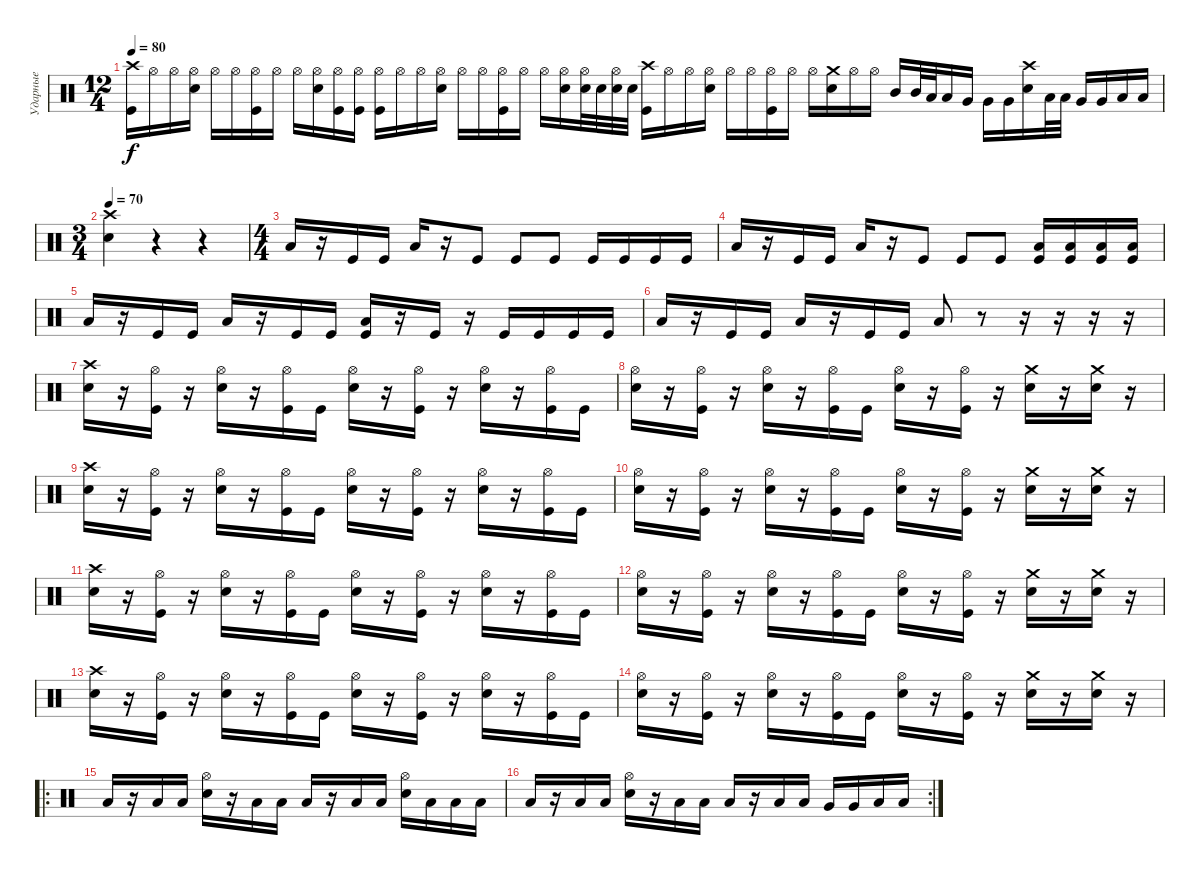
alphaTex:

\track ("Ударные" "Ударные") {instrument percussion}
\staff {score}
\articulation defaults
\ts (12 4)
\tempo 80
\clef neutral
\ks c
("Crash high (hit)" "Kick (hit)").16{dy f} "Hi-Hat (open)".16 "Hi-Hat (open)".16 ("Hi-Hat (open)" "Electric Snare (hit)").16 "Hi-Hat (open)".16 "Hi-Hat (open)".16 ("Hi-Hat (open)" "Kick (hit)").16 "Hi-Hat (open)".16 "Hi-Hat (open)".16 ("Hi-Hat (open)" "Electric Snare (hit)").16 ("Hi-Hat (open)" "Kick (hit)").16 ("Hi-Hat (open)" "Kick (hit)").16 ("Hi-Hat (open)" "Kick (hit)").16 "Hi-Hat (open)".16 "Hi-Hat (open)".16 ("Hi-Hat (open)" "Electric Snare (hit)").16 "Hi-Hat (open)".16 "Hi-Hat (open)".16 ("Hi-Hat (open)" "Kick (hit)").16 "Hi-Hat (open)".16 "Hi-Hat (open)".16 ("Hi-Hat (open)" "Electric Snare (hit)").16 ("Hi-Hat (open)" "Electric Snare (hit)").32 "Electric Snare (hit)".32 ("Hi-Hat (open)" "Electric Snare (hit)").32 "Electric Snare (hit)".32 ("Crash high (hit)" "Kick (hit)").16 "Hi-Hat (open)".16 "Hi-Hat (open)".16 ("Hi-Hat (open)" "Electric Snare (hit)").16 "Hi-Hat (open)".16 "Hi-Hat (open)".16 ("Hi-Hat (open)" "Kick (hit)").16 "Hi-Hat (open)".16 "Hi-Hat (open)".16 ("Crash medium (hit)" "Electric Snare (hit)").16 "Hi-Hat (open)".16 "Hi-Hat (open)".16 "Mid Tom (hit)".16 "Mid Tom (hit)".32 "Low Tom (hit)".32 "Low Tom (hit)".16 "Very Low Tom (hit)".16 "Very Low Tom (hit)".16 "Very Low Tom (hit)".16 ("Crash high (hit)" "Electric Snare (hit)").16 "Low Tom (hit)".32 "Low Tom (hit)".32 "Very Low Tom (hit)".16 "Very Low Tom (hit)".16 "Low Floor Tom (hit)".16 "Low Floor Tom (hit)".16 |
\ts (3 4)
\tempo 70
("Crash high (hit)" "Electric Snare (hit)").4 r.4 r.4 |
\ts (4 4)
"Low Floor Tom (hit)".16 r.16 "Kick (hit)".16 "Kick (hit)".16 "Low Floor Tom (hit)".16 r.16 "Kick (hit)".8 "Kick (hit)".8 "Kick (hit)".8 "Kick (hit)".16 "Kick (hit)".16 "Kick (hit)".16 "Kick (hit)".16 |
"Low Floor Tom (hit)".16 r.16 "Kick (hit)".16 "Kick (hit)".16 "Low Floor Tom (hit)".16 r.16 "Kick (hit)".8 "Kick (hit)".8 "Kick (hit)".8 ("Low Floor Tom (hit)" "Kick (hit)").16 ("Low Floor Tom (hit)" "Kick (hit)").16 ("Low Floor Tom (hit)" "Kick (hit)").16 ("Low Floor Tom (hit)" "Kick (hit)").16 |
"Low Floor Tom (hit)".16 r.16 "Kick (hit)".16 "Kick (hit)".16 "Low Floor Tom (hit)".16 r.16 "Kick (hit)".16 "Kick (hit)".16 ("Low Floor Tom (hit)" "Kick (hit)").16 r.16 "Kick (hit)".16 r.16 "Kick (hit)".16 "Kick (hit)".16 "Kick (hit)".16 "Kick (hit)".16 |
"Low Floor Tom (hit)".16 r.16 "Kick (hit)".16 "Kick (hit)".16 "Low Floor Tom (hit)".16 r.16 "Kick (hit)".16 "Kick (hit)".16 "Low Floor Tom (hit)".8 r.8 r.16 r.16 r.16 r.16 |
("Crash high (hit)" "Electric Snare (hit)").16 r.16 ("Hi-Hat (open)" "Kick (hit)").16 r.16 ("Hi-Hat (open)" "Electric Snare (hit)").16 r.16 ("Hi-Hat (open)" "Kick (hit)").16 "Kick (hit)".16 ("Hi-Hat (open)" "Electric Snare (hit)").16 r.16 ("Hi-Hat (open)" "Kick (hit)").16 r.16 ("Hi-Hat (open)" "Electric Snare (hit)").16 r.16 ("Hi-Hat (open)" "Kick (hit)").16 "Kick (hit)".16 |
("Hi-Hat (open)" "Electric Snare (hit)").16 r.16 ("Hi-Hat (open)" "Kick (hit)").16 r.16 ("Hi-Hat (open)" "Electric Snare (hit)").16 r.16 ("Hi-Hat (open)" "Kick (hit)").16 "Kick (hit)".16 ("Hi-Hat (open)" "Electric Snare (hit)").16 r.16 ("Hi-Hat (open)" "Kick (hit)").16 r.16 ("Crash medium (hit)" "Electric Snare (hit)").16 r.16 ("Crash medium (hit)" "Electric Snare (hit)").16 r.16 |
("Crash high (hit)" "Electric Snare (hit)").16 r.16 ("Hi-Hat (open)" "Kick (hit)").16 r.16 ("Hi-Hat (open)" "Electric Snare (hit)").16 r.16 ("Hi-Hat (open)" "Kick (hit)").16 "Kick (hit)".16 ("Hi-Hat (open)" "Electric Snare (hit)").16 r.16 ("Hi-Hat (open)" "Kick (hit)").16 r.16 ("Hi-Hat (open)" "Electric Snare (hit)").16 r.16 ("Hi-Hat (open)" "Kick (hit)").16 "Kick (hit)".16 |
("Hi-Hat (open)" "Electric Snare (hit)").16 r.16 ("Hi-Hat (open)" "Kick (hit)").16 r.16 ("Hi-Hat (open)" "Electric Snare (hit)").16 r.16 ("Hi-Hat (open)" "Kick (hit)").16 "Kick (hit)".16 ("Hi-Hat (open)" "Electric Snare (hit)").16 r.16 ("Hi-Hat (open)" "Kick (hit)").16 r.16 ("Crash medium (hit)" "Electric Snare (hit)").16 r.16 ("Crash medium (hit)" "Electric Snare (hit)").16 r.16 |
("Crash high (hit)" "Electric Snare (hit)").16 r.16 ("Hi-Hat (open)" "Kick (hit)").16 r.16 ("Hi-Hat (open)" "Electric Snare (hit)").16 r.16 ("Hi-Hat (open)" "Kick (hit)").16 "Kick (hit)".16 ("Hi-Hat (open)" "Electric Snare (hit)").16 r.16 ("Hi-Hat (open)" "Kick (hit)").16 r.16 ("Hi-Hat (open)" "Electric Snare (hit)").16 r.16 ("Hi-Hat (open)" "Kick (hit)").16 "Kick (hit)".16 |
("Hi-Hat (open)" "Electric Snare (hit)").16 r.16 ("Hi-Hat (open)" "Kick (hit)").16 r.16 ("Hi-Hat (open)" "Electric Snare (hit)").16 r.16 ("Hi-Hat (open)" "Kick (hit)").16 "Kick (hit)".16 ("Hi-Hat (open)" "Electric Snare (hit)").16 r.16 ("Hi-Hat (open)" "Kick (hit)").16 r.16 ("Crash medium (hit)" "Electric Snare (hit)").16 r.16 ("Crash medium (hit)" "Electric Snare (hit)").16 r.16 |
("Crash high (hit)" "Electric Snare (hit)").16 r.16 ("Hi-Hat (open)" "Kick (hit)").16 r.16 ("Hi-Hat (open)" "Electric Snare (hit)").16 r.16 ("Hi-Hat (open)" "Kick (hit)").16 "Kick (hit)".16 ("Hi-Hat (open)" "Electric Snare (hit)").16 r.16 ("Hi-Hat (open)" "Kick (hit)").16 r.16 ("Hi-Hat (open)" "Electric Snare (hit)").16 r.16 ("Hi-Hat (open)" "Kick (hit)").16 "Kick (hit)".16 |
("Hi-Hat (open)" "Electric Snare (hit)").16 r.16 ("Hi-Hat (open)" "Kick (hit)").16 r.16 ("Hi-Hat (open)" "Electric Snare (hit)").16 r.16 ("Hi-Hat (open)" "Kick (hit)").16 "Kick (hit)".16 ("Hi-Hat (open)" "Electric Snare (hit)").16 r.16 ("Hi-Hat (open)" "Kick (hit)").16 r.16 ("Crash medium (hit)" "Electric Snare (hit)").16 r.16 ("Crash medium (hit)" "Electric Snare (hit)").16 r.16 |
\ro "Low Floor Tom (hit)".16
r.16 "Low Floor Tom (hit)".16 "Low Floor Tom (hit)".16 ("Hi-Hat (open)" "Electric Snare (hit)").16 r.16 "Low Floor Tom (hit)".16 "Low Floor Tom (hit)".16 "Low Floor Tom (hit)".16 r.16 "Low Floor Tom (hit)".16 "Low Floor Tom (hit)".16 ("Hi-Hat (open)" "Electric Snare (hit)").16 "Low Floor Tom (hit)".16 "Low Floor Tom (hit)".16 "Low Floor Tom (hit)".16 |
\rc 2 "Low Floor Tom (hit)".16
r.16 "Low Floor Tom (hit)".16 "Low Floor Tom (hit)".16 ("Hi-Hat (open)" "Electric Snare (hit)").16 r.16 "Low Floor Tom (hit)".16 "Low Floor Tom (hit)".16 "Low Floor Tom (hit)".16 r.16 "Low Tom (hit)".16 "Low Tom (hit)".16 "Very Low Tom (hit)".16 "Very Low Tom (hit)".16 "Low Floor Tom (hit)".16 "Low Floor Tom (hit)".16
